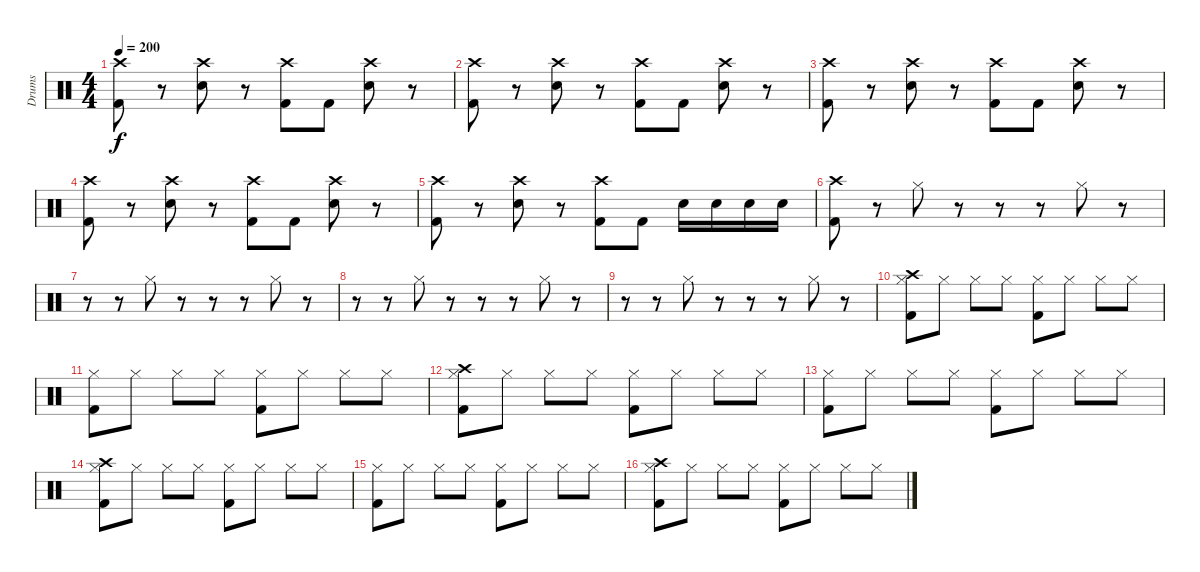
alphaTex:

\track ("Drums" "Drums") {instrument percussion}
\staff {score}
\articulation defaults
\ts (4 4)
\tempo 200
\clef neutral
\ks c
("Crash high (hit)" "Kick (hit) 2").8{dy f} r.8 ("Crash high (hit)" "Electric Snare (hit)").8 r.8 ("Crash high (hit)" "Kick (hit) 2").8 "Kick (hit) 2".8 ("Crash high (hit)" "Electric Snare (hit)").8 r.8 |
("Crash high (hit)" "Kick (hit) 2").8 r.8 ("Crash high (hit)" "Electric Snare (hit)").8 r.8 ("Crash high (hit)" "Kick (hit) 2").8 "Kick (hit) 2".8 ("Crash high (hit)" "Electric Snare (hit)").8 r.8 |
("Crash high (hit)" "Kick (hit) 2").8 r.8 ("Crash high (hit)" "Electric Snare (hit)").8 r.8 ("Crash high (hit)" "Kick (hit) 2").8 "Kick (hit) 2".8 ("Crash high (hit)" "Electric Snare (hit)").8 r.8 |
("Crash high (hit)" "Kick (hit) 2").8 r.8 ("Crash high (hit)" "Electric Snare (hit)").8 r.8 ("Crash high (hit)" "Kick (hit) 2").8 "Kick (hit) 2".8 ("Crash high (hit)" "Electric Snare (hit)").8 r.8 |
("Crash high (hit)" "Kick (hit) 2").8 r.8 ("Crash high (hit)" "Electric Snare (hit)").8 r.8 ("Crash high (hit)" "Kick (hit) 2").8 "Kick (hit) 2".8 "Electric Snare (hit)".16 "Electric Snare (hit)".16 "Electric Snare (hit)".16 "Electric Snare (hit)".16 |
("Crash high (hit)" "Kick (hit) 2").8 r.8 "Hi-Hat (closed)".8 r.8 r.8 r.8 "Hi-Hat (closed)".8 r.8 |
r.8 r.8 "Hi-Hat (closed)".8 r.8 r.8 r.8 "Hi-Hat (closed)".8 r.8 |
r.8 r.8 "Hi-Hat (closed)".8 r.8 r.8 r.8 "Hi-Hat (closed)".8 r.8 |
r.8 r.8 "Hi-Hat (closed)".8 r.8 r.8 r.8 "Hi-Hat (closed)".8 r.8 |
("Hi-Hat (closed)" "Crash high (hit)" "Kick (hit) 2").8 "Hi-Hat (closed)".8 "Hi-Hat (closed)".8 "Hi-Hat (closed)".8 ("Hi-Hat (closed)" "Kick (hit) 2").8 "Hi-Hat (closed)".8 "Hi-Hat (closed)".8 "Hi-Hat (closed)".8 |
("Hi-Hat (closed)" "Kick (hit) 2").8 "Hi-Hat (closed)".8 "Hi-Hat (closed)".8 "Hi-Hat (closed)".8 ("Hi-Hat (closed)" "Kick (hit) 2").8 "Hi-Hat (closed)".8 "Hi-Hat (closed)".8 "Hi-Hat (closed)".8 |
("Hi-Hat (closed)" "Crash high (hit)" "Kick (hit) 2").8 "Hi-Hat (closed)".8 "Hi-Hat (closed)".8 "Hi-Hat (closed)".8 ("Hi-Hat (closed)" "Kick (hit) 2").8 "Hi-Hat (closed)".8 "Hi-Hat (closed)".8 "Hi-Hat (closed)".8 |
("Hi-Hat (closed)" "Kick (hit) 2").8 "Hi-Hat (closed)".8 "Hi-Hat (closed)".8 "Hi-Hat (closed)".8 ("Hi-Hat (closed)" "Kick (hit) 2").8 "Hi-Hat (closed)".8 "Hi-Hat (closed)".8 "Hi-Hat (closed)".8 |
("Hi-Hat (closed)" "Crash high (hit)" "Kick (hit) 2").8 "Hi-Hat (closed)".8 "Hi-Hat (closed)".8 "Hi-Hat (closed)".8 ("Hi-Hat (closed)" "Kick (hit) 2").8 "Hi-Hat (closed)".8 "Hi-Hat (closed)".8 "Hi-Hat (closed)".8 |
("Hi-Hat (closed)" "Kick (hit) 2").8 "Hi-Hat (closed)".8 "Hi-Hat (closed)".8 "Hi-Hat (closed)".8 ("Hi-Hat (closed)" "Kick (hit) 2").8 "Hi-Hat (closed)".8 "Hi-Hat (closed)".8 "Hi-Hat (closed)".8 |
("Hi-Hat (closed)" "Crash high (hit)" "Kick (hit) 2").8 "Hi-Hat (closed)".8 "Hi-Hat (closed)".8 "Hi-Hat (closed)".8 ("Hi-Hat (closed)" "Kick (hit) 2").8 "Hi-Hat (closed)".8 "Hi-Hat (closed)".8 "Hi-Hat (closed)".8
